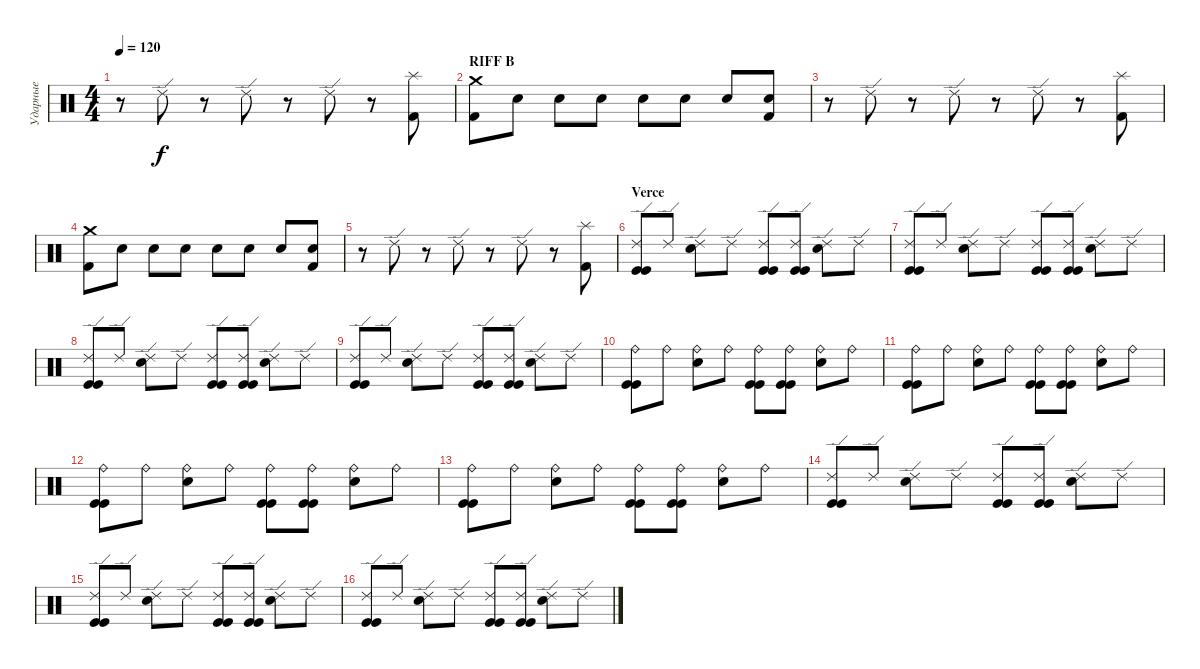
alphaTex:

\track ("Ударные" "Ударные") {instrument percussion}
\staff {score}
\articulation defaults
\ts (4 4)
\tempo 120
\clef neutral
\ks c
r.8{dy f} "Ride (edge) 2".8 r.8 "Ride (edge) 2".8 r.8 "Ride (edge) 2".8 r.8 ("Splash (hit)" "Kick (hit) 2").8 |
\section ("" "RIFF B")
("Crash medium (hit)" "Kick (hit) 2").8 "Metronome (bell)".8 "Metronome (bell)".8 "Metronome (bell)".8 "Metronome (bell)".8 "Metronome (bell)".8 "Metronome (bell)".8 ("Metronome (bell)" "Kick (hit) 2").8 |
r.8 "Ride (edge) 2".8 r.8 "Ride (edge) 2".8 r.8 "Ride (edge) 2".8 r.8 ("Splash (hit)" "Kick (hit) 2").8 |
("Crash medium (hit)" "Kick (hit) 2").8 "Metronome (bell)".8 "Metronome (bell)".8 "Metronome (bell)".8 "Metronome (bell)".8 "Metronome (bell)".8 "Metronome (bell)".8 ("Metronome (bell)" "Kick (hit) 2").8 |
r.8 "Ride (edge) 2".8 r.8 "Ride (edge) 2".8 r.8 "Ride (edge) 2".8 r.8 ("Splash (hit)" "Kick (hit) 2").8 |
\section ("" "Verce")
("Ride (edge) 2" "Kick (hit)" "Kick (hit)").8 "Ride (edge) 2".8 ("Ride (edge) 2" "Snare (hit) 2").8 "Ride (edge) 2".8 ("Ride (edge) 2" "Kick (hit)" "Kick (hit)").8 ("Ride (edge) 2" "Kick (hit)" "Kick (hit)").8 ("Ride (edge) 2" "Snare (hit) 2").8 "Ride (edge) 2".8 |
("Ride (edge) 2" "Kick (hit)" "Kick (hit)").8 "Ride (edge) 2".8 ("Ride (edge) 2" "Snare (hit) 2").8 "Ride (edge) 2".8 ("Ride (edge) 2" "Kick (hit)" "Kick (hit)").8 ("Ride (edge) 2" "Kick (hit)" "Kick (hit)").8 ("Ride (edge) 2" "Snare (hit) 2").8 "Ride (edge) 2".8 |
("Ride (edge) 2" "Kick (hit)" "Kick (hit)").8 "Ride (edge) 2".8 ("Ride (edge) 2" "Snare (hit) 2").8 "Ride (edge) 2".8 ("Ride (edge) 2" "Kick (hit)" "Kick (hit)").8 ("Ride (edge) 2" "Kick (hit)" "Kick (hit)").8 ("Ride (edge) 2" "Snare (hit) 2").8 "Ride (edge) 2".8 |
("Ride (edge) 2" "Kick (hit)" "Kick (hit)").8 "Ride (edge) 2".8 ("Ride (edge) 2" "Snare (hit) 2").8 "Ride (edge) 2".8 ("Ride (edge) 2" "Kick (hit)" "Kick (hit)").8 ("Ride (edge) 2" "Kick (hit)" "Kick (hit)").8 ("Ride (edge) 2" "Snare (hit) 2").8 "Ride (edge) 2".8 |
("Ride (bell)" "Kick (hit)" "Kick (hit)").8 "Ride (bell)".8 ("Ride (bell)" "Snare (hit) 2").8 "Ride (bell)".8 ("Ride (bell)" "Kick (hit)" "Kick (hit)").8 ("Ride (bell)" "Kick (hit)" "Kick (hit)").8 ("Ride (bell)" "Snare (hit) 2").8 "Ride (bell)".8 |
("Ride (bell)" "Kick (hit)" "Kick (hit)").8 "Ride (bell)".8 ("Ride (bell)" "Snare (hit) 2").8 "Ride (bell)".8 ("Ride (bell)" "Kick (hit)" "Kick (hit)").8 ("Ride (bell)" "Kick (hit)" "Kick (hit)").8 ("Ride (bell)" "Snare (hit) 2").8 "Ride (bell)".8 |
("Ride (bell)" "Kick (hit)" "Kick (hit)").8 "Ride (bell)".8 ("Ride (bell)" "Snare (hit) 2").8 "Ride (bell)".8 ("Ride (bell)" "Kick (hit)" "Kick (hit)").8 ("Ride (bell)" "Kick (hit)" "Kick (hit)").8 ("Ride (bell)" "Snare (hit) 2").8 "Ride (bell)".8 |
("Ride (bell)" "Kick (hit)" "Kick (hit)").8 "Ride (bell)".8 ("Ride (bell)" "Snare (hit) 2").8 "Ride (bell)".8 ("Ride (bell)" "Kick (hit)" "Kick (hit)").8 ("Ride (bell)" "Kick (hit)" "Kick (hit)").8 ("Ride (bell)" "Snare (hit) 2").8 "Ride (bell)".8 |
("Ride (edge) 2" "Kick (hit)" "Kick (hit)").8 "Ride (edge) 2".8 ("Ride (edge) 2" "Snare (hit) 2").8 "Ride (edge) 2".8 ("Ride (edge) 2" "Kick (hit)" "Kick (hit)").8 ("Ride (edge) 2" "Kick (hit)" "Kick (hit)").8 ("Ride (edge) 2" "Snare (hit) 2").8 "Ride (edge) 2".8 |
("Ride (edge) 2" "Kick (hit)" "Kick (hit)").8 "Ride (edge) 2".8 ("Ride (edge) 2" "Snare (hit) 2").8 "Ride (edge) 2".8 ("Ride (edge) 2" "Kick (hit)" "Kick (hit)").8 ("Ride (edge) 2" "Kick (hit)" "Kick (hit)").8 ("Ride (edge) 2" "Snare (hit) 2").8 "Ride (edge) 2".8 |
("Ride (edge) 2" "Kick (hit)" "Kick (hit)").8 "Ride (edge) 2".8 ("Ride (edge) 2" "Snare (hit) 2").8 "Ride (edge) 2".8 ("Ride (edge) 2" "Kick (hit)" "Kick (hit)").8 ("Ride (edge) 2" "Kick (hit)" "Kick (hit)").8 ("Ride (edge) 2" "Snare (hit) 2").8 "Ride (edge) 2".8
